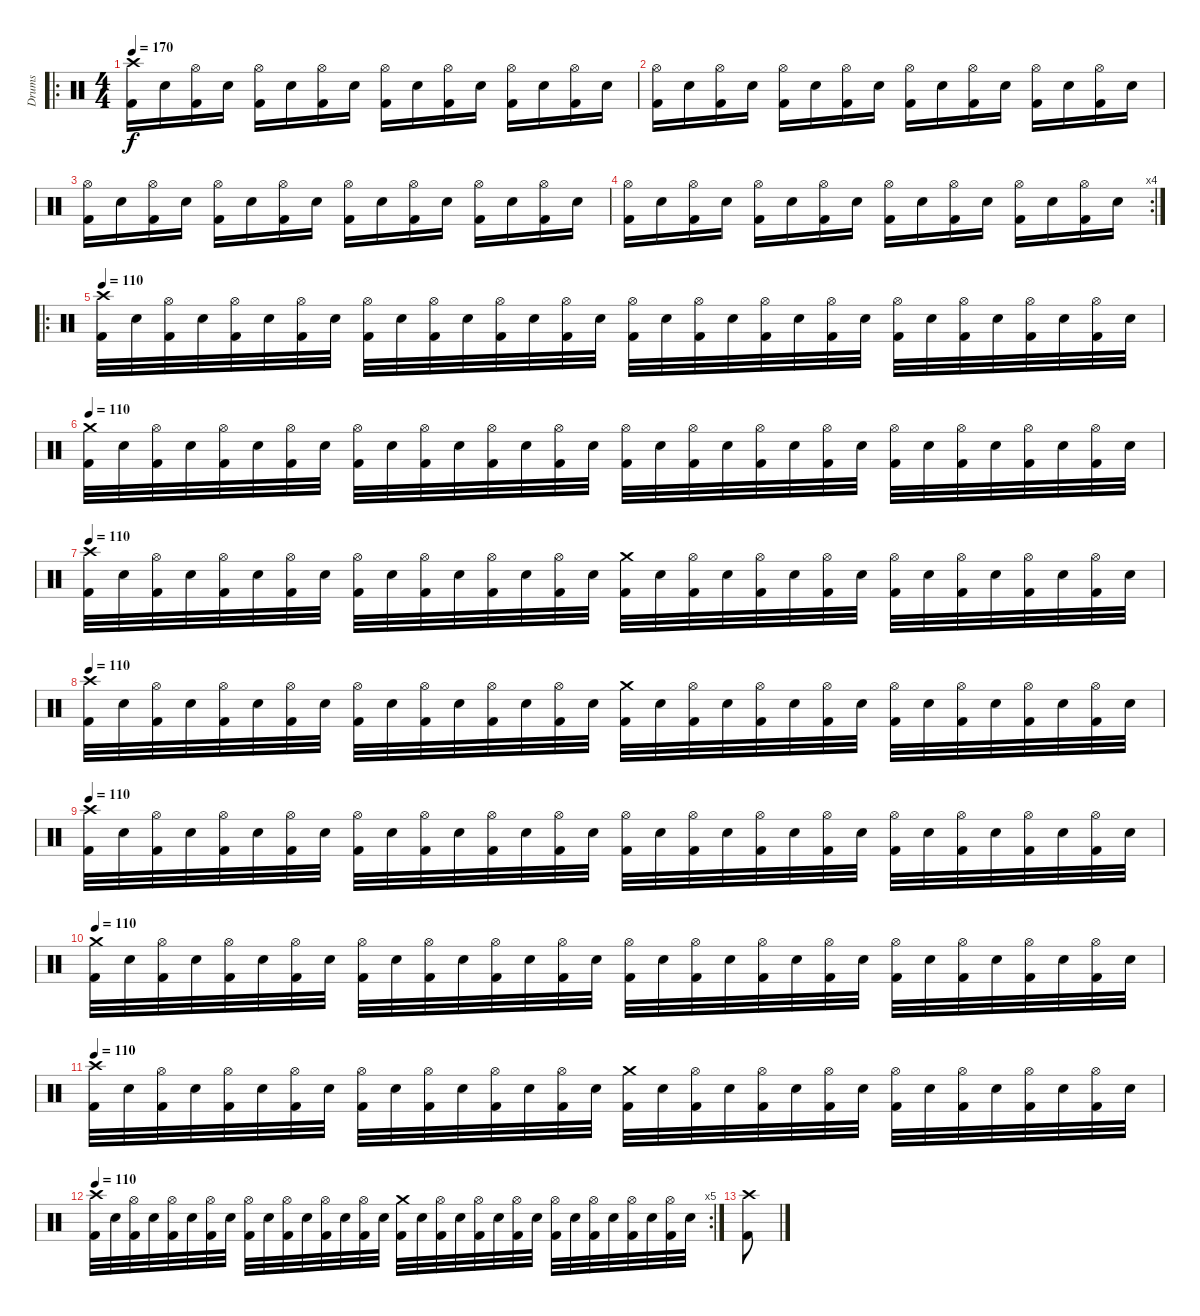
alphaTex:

\track ("Drums" "Drums") {instrument percussion}
\staff {score}
\articulation defaults
\ro
\ts (4 4)
\tempo 170
\clef neutral
\ks c
("Crash high (hit)" "Kick (hit) 2").16{dy f} "Electric Snare (hit)".16 ("Hi-Hat (open)" "Kick (hit) 2").16 "Electric Snare (hit)".16 ("Hi-Hat (open)" "Kick (hit) 2").16 "Electric Snare (hit)".16 ("Hi-Hat (open)" "Kick (hit) 2").16 "Electric Snare (hit)".16 ("Hi-Hat (open)" "Kick (hit) 2").16 "Electric Snare (hit)".16 ("Hi-Hat (open)" "Kick (hit) 2").16 "Electric Snare (hit)".16 ("Hi-Hat (open)" "Kick (hit) 2").16 "Electric Snare (hit)".16 ("Hi-Hat (open)" "Kick (hit) 2").16 "Electric Snare (hit)".16 |
("Hi-Hat (open)" "Kick (hit) 2").16 "Electric Snare (hit)".16 ("Hi-Hat (open)" "Kick (hit) 2").16 "Electric Snare (hit)".16 ("Hi-Hat (open)" "Kick (hit) 2").16 "Electric Snare (hit)".16 ("Hi-Hat (open)" "Kick (hit) 2").16 "Electric Snare (hit)".16 ("Hi-Hat (open)" "Kick (hit) 2").16 "Electric Snare (hit)".16 ("Hi-Hat (open)" "Kick (hit) 2").16 "Electric Snare (hit)".16 ("Hi-Hat (open)" "Kick (hit) 2").16 "Electric Snare (hit)".16 ("Hi-Hat (open)" "Kick (hit) 2").16 "Electric Snare (hit)".16 |
("Hi-Hat (open)" "Kick (hit) 2").16 "Electric Snare (hit)".16 ("Hi-Hat (open)" "Kick (hit) 2").16 "Electric Snare (hit)".16 ("Hi-Hat (open)" "Kick (hit) 2").16 "Electric Snare (hit)".16 ("Hi-Hat (open)" "Kick (hit) 2").16 "Electric Snare (hit)".16 ("Hi-Hat (open)" "Kick (hit) 2").16 "Electric Snare (hit)".16 ("Hi-Hat (open)" "Kick (hit) 2").16 "Electric Snare (hit)".16 ("Hi-Hat (open)" "Kick (hit) 2").16 "Electric Snare (hit)".16 ("Hi-Hat (open)" "Kick (hit) 2").16 "Electric Snare (hit)".16 |
\rc 4
("Hi-Hat (open)" "Kick (hit) 2").16 "Electric Snare (hit)".16 ("Hi-Hat (open)" "Kick (hit) 2").16 "Electric Snare (hit)".16 ("Hi-Hat (open)" "Kick (hit) 2").16 "Electric Snare (hit)".16 ("Hi-Hat (open)" "Kick (hit) 2").16 "Electric Snare (hit)".16 ("Hi-Hat (open)" "Kick (hit) 2").16 "Electric Snare (hit)".16 ("Hi-Hat (open)" "Kick (hit) 2").16 "Electric Snare (hit)".16 ("Hi-Hat (open)" "Kick (hit) 2").16 "Electric Snare (hit)".16 ("Hi-Hat (open)" "Kick (hit) 2").16 "Electric Snare (hit)".16 |
\ro
\tempo 180
\tempo 100
\tempo 110
("Crash high (hit)" "Kick (hit) 2").32 "Electric Snare (hit)".32 ("Hi-Hat (open)" "Kick (hit) 2").32 "Electric Snare (hit)".32 ("Hi-Hat (open)" "Kick (hit) 2").32 "Electric Snare (hit)".32 ("Hi-Hat (open)" "Kick (hit) 2").32 "Electric Snare (hit)".32 ("Hi-Hat (open)" "Kick (hit) 2").32 "Electric Snare (hit)".32 ("Hi-Hat (open)" "Kick (hit) 2").32 "Electric Snare (hit)".32 ("Hi-Hat (open)" "Kick (hit) 2").32 "Electric Snare (hit)".32 ("Hi-Hat (open)" "Kick (hit) 2").32 "Electric Snare (hit)".32 ("Hi-Hat (open)" "Kick (hit) 2").32 "Electric Snare (hit)".32 ("Hi-Hat (open)" "Kick (hit) 2").32 "Electric Snare (hit)".32 ("Hi-Hat (open)" "Kick (hit) 2").32 "Electric Snare (hit)".32 ("Hi-Hat (open)" "Kick (hit) 2").32 "Electric Snare (hit)".32 ("Hi-Hat (open)" "Kick (hit) 2").32 "Electric Snare (hit)".32 ("Hi-Hat (open)" "Kick (hit) 2").32 "Electric Snare (hit)".32 ("Hi-Hat (open)" "Kick (hit) 2").32 "Electric Snare (hit)".32 ("Hi-Hat (open)" "Kick (hit) 2").32 "Electric Snare (hit)".32 |
\tempo 100
\tempo 110
("Crash medium (hit)" "Kick (hit) 2").32 "Electric Snare (hit)".32 ("Hi-Hat (open)" "Kick (hit) 2").32 "Electric Snare (hit)".32 ("Hi-Hat (open)" "Kick (hit) 2").32 "Electric Snare (hit)".32 ("Hi-Hat (open)" "Kick (hit) 2").32 "Electric Snare (hit)".32 ("Hi-Hat (open)" "Kick (hit) 2").32 "Electric Snare (hit)".32 ("Hi-Hat (open)" "Kick (hit) 2").32 "Electric Snare (hit)".32 ("Hi-Hat (open)" "Kick (hit) 2").32 "Electric Snare (hit)".32 ("Hi-Hat (open)" "Kick (hit) 2").32 "Electric Snare (hit)".32 ("Hi-Hat (open)" "Kick (hit) 2").32 "Electric Snare (hit)".32 ("Hi-Hat (open)" "Kick (hit) 2").32 "Electric Snare (hit)".32 ("Hi-Hat (open)" "Kick (hit) 2").32 "Electric Snare (hit)".32 ("Hi-Hat (open)" "Kick (hit) 2").32 "Electric Snare (hit)".32 ("Hi-Hat (open)" "Kick (hit) 2").32 "Electric Snare (hit)".32 ("Hi-Hat (open)" "Kick (hit) 2").32 "Electric Snare (hit)".32 ("Hi-Hat (open)" "Kick (hit) 2").32 "Electric Snare (hit)".32 ("Hi-Hat (open)" "Kick (hit) 2").32 "Electric Snare (hit)".32 |
\tempo 110
("Crash high (hit)" "Kick (hit) 2").32 "Electric Snare (hit)".32 ("Hi-Hat (open)" "Kick (hit) 2").32 "Electric Snare (hit)".32 ("Hi-Hat (open)" "Kick (hit) 2").32 "Electric Snare (hit)".32 ("Hi-Hat (open)" "Kick (hit) 2").32 "Electric Snare (hit)".32 ("Hi-Hat (open)" "Kick (hit) 2").32 "Electric Snare (hit)".32 ("Hi-Hat (open)" "Kick (hit) 2").32 "Electric Snare (hit)".32 ("Hi-Hat (open)" "Kick (hit) 2").32 "Electric Snare (hit)".32 ("Hi-Hat (open)" "Kick (hit) 2").32 "Electric Snare (hit)".32 ("Crash medium (hit)" "Kick (hit) 2").32 "Electric Snare (hit)".32 ("Hi-Hat (open)" "Kick (hit) 2").32 "Electric Snare (hit)".32 ("Hi-Hat (open)" "Kick (hit) 2").32 "Electric Snare (hit)".32 ("Hi-Hat (open)" "Kick (hit) 2").32 "Electric Snare (hit)".32 ("Hi-Hat (open)" "Kick (hit) 2").32 "Electric Snare (hit)".32 ("Hi-Hat (open)" "Kick (hit) 2").32 "Electric Snare (hit)".32 ("Hi-Hat (open)" "Kick (hit) 2").32 "Electric Snare (hit)".32 ("Hi-Hat (open)" "Kick (hit) 2").32 "Electric Snare (hit)".32 |
\tempo 110
("Crash high (hit)" "Kick (hit) 2").32 "Electric Snare (hit)".32 ("Hi-Hat (open)" "Kick (hit) 2").32 "Electric Snare (hit)".32 ("Hi-Hat (open)" "Kick (hit) 2").32 "Electric Snare (hit)".32 ("Hi-Hat (open)" "Kick (hit) 2").32 "Electric Snare (hit)".32 ("Hi-Hat (open)" "Kick (hit) 2").32 "Electric Snare (hit)".32 ("Hi-Hat (open)" "Kick (hit) 2").32 "Electric Snare (hit)".32 ("Hi-Hat (open)" "Kick (hit) 2").32 "Electric Snare (hit)".32 ("Hi-Hat (open)" "Kick (hit) 2").32 "Electric Snare (hit)".32 ("Crash medium (hit)" "Kick (hit) 2").32 "Electric Snare (hit)".32 ("Hi-Hat (open)" "Kick (hit) 2").32 "Electric Snare (hit)".32 ("Hi-Hat (open)" "Kick (hit) 2").32 "Electric Snare (hit)".32 ("Hi-Hat (open)" "Kick (hit) 2").32 "Electric Snare (hit)".32 ("Hi-Hat (open)" "Kick (hit) 2").32 "Electric Snare (hit)".32 ("Hi-Hat (open)" "Kick (hit) 2").32 "Electric Snare (hit)".32 ("Hi-Hat (open)" "Kick (hit) 2").32 "Electric Snare (hit)".32 ("Hi-Hat (open)" "Kick (hit) 2").32 "Electric Snare (hit)".32 |
\tempo 110
("Crash high (hit)" "Kick (hit) 2").32 "Electric Snare (hit)".32 ("Hi-Hat (open)" "Kick (hit) 2").32 "Electric Snare (hit)".32 ("Hi-Hat (open)" "Kick (hit) 2").32 "Electric Snare (hit)".32 ("Hi-Hat (open)" "Kick (hit) 2").32 "Electric Snare (hit)".32 ("Hi-Hat (open)" "Kick (hit) 2").32 "Electric Snare (hit)".32 ("Hi-Hat (open)" "Kick (hit) 2").32 "Electric Snare (hit)".32 ("Hi-Hat (open)" "Kick (hit) 2").32 "Electric Snare (hit)".32 ("Hi-Hat (open)" "Kick (hit) 2").32 "Electric Snare (hit)".32 ("Hi-Hat (open)" "Kick (hit) 2").32 "Electric Snare (hit)".32 ("Hi-Hat (open)" "Kick (hit) 2").32 "Electric Snare (hit)".32 ("Hi-Hat (open)" "Kick (hit) 2").32 "Electric Snare (hit)".32 ("Hi-Hat (open)" "Kick (hit) 2").32 "Electric Snare (hit)".32 ("Hi-Hat (open)" "Kick (hit) 2").32 "Electric Snare (hit)".32 ("Hi-Hat (open)" "Kick (hit) 2").32 "Electric Snare (hit)".32 ("Hi-Hat (open)" "Kick (hit) 2").32 "Electric Snare (hit)".32 ("Hi-Hat (open)" "Kick (hit) 2").32 "Electric Snare (hit)".32 |
\tempo 110
("Crash medium (hit)" "Kick (hit) 2").32 "Electric Snare (hit)".32 ("Hi-Hat (open)" "Kick (hit) 2").32 "Electric Snare (hit)".32 ("Hi-Hat (open)" "Kick (hit) 2").32 "Electric Snare (hit)".32 ("Hi-Hat (open)" "Kick (hit) 2").32 "Electric Snare (hit)".32 ("Hi-Hat (open)" "Kick (hit) 2").32 "Electric Snare (hit)".32 ("Hi-Hat (open)" "Kick (hit) 2").32 "Electric Snare (hit)".32 ("Hi-Hat (open)" "Kick (hit) 2").32 "Electric Snare (hit)".32 ("Hi-Hat (open)" "Kick (hit) 2").32 "Electric Snare (hit)".32 ("Hi-Hat (open)" "Kick (hit) 2").32 "Electric Snare (hit)".32 ("Hi-Hat (open)" "Kick (hit) 2").32 "Electric Snare (hit)".32 ("Hi-Hat (open)" "Kick (hit) 2").32 "Electric Snare (hit)".32 ("Hi-Hat (open)" "Kick (hit) 2").32 "Electric Snare (hit)".32 ("Hi-Hat (open)" "Kick (hit) 2").32 "Electric Snare (hit)".32 ("Hi-Hat (open)" "Kick (hit) 2").32 "Electric Snare (hit)".32 ("Hi-Hat (open)" "Kick (hit) 2").32 "Electric Snare (hit)".32 ("Hi-Hat (open)" "Kick (hit) 2").32 "Electric Snare (hit)".32 |
\tempo 110
("Crash high (hit)" "Kick (hit) 2").32 "Electric Snare (hit)".32 ("Hi-Hat (open)" "Kick (hit) 2").32 "Electric Snare (hit)".32 ("Hi-Hat (open)" "Kick (hit) 2").32 "Electric Snare (hit)".32 ("Hi-Hat (open)" "Kick (hit) 2").32 "Electric Snare (hit)".32 ("Hi-Hat (open)" "Kick (hit) 2").32 "Electric Snare (hit)".32 ("Hi-Hat (open)" "Kick (hit) 2").32 "Electric Snare (hit)".32 ("Hi-Hat (open)" "Kick (hit) 2").32 "Electric Snare (hit)".32 ("Hi-Hat (open)" "Kick (hit) 2").32 "Electric Snare (hit)".32 ("Crash medium (hit)" "Kick (hit) 2").32 "Electric Snare (hit)".32 ("Hi-Hat (open)" "Kick (hit) 2").32 "Electric Snare (hit)".32 ("Hi-Hat (open)" "Kick (hit) 2").32 "Electric Snare (hit)".32 ("Hi-Hat (open)" "Kick (hit) 2").32 "Electric Snare (hit)".32 ("Hi-Hat (open)" "Kick (hit) 2").32 "Electric Snare (hit)".32 ("Hi-Hat (open)" "Kick (hit) 2").32 "Electric Snare (hit)".32 ("Hi-Hat (open)" "Kick (hit) 2").32 "Electric Snare (hit)".32 ("Hi-Hat (open)" "Kick (hit) 2").32 "Electric Snare (hit)".32 |
\rc 5
\tempo 110
("Crash high (hit)" "Kick (hit) 2").32 "Electric Snare (hit)".32 ("Hi-Hat (open)" "Kick (hit) 2").32 "Electric Snare (hit)".32 ("Hi-Hat (open)" "Kick (hit) 2").32 "Electric Snare (hit)".32 ("Hi-Hat (open)" "Kick (hit) 2").32 "Electric Snare (hit)".32 ("Hi-Hat (open)" "Kick (hit) 2").32 "Electric Snare (hit)".32 ("Hi-Hat (open)" "Kick (hit) 2").32 "Electric Snare (hit)".32 ("Hi-Hat (open)" "Kick (hit) 2").32 "Electric Snare (hit)".32 ("Hi-Hat (open)" "Kick (hit) 2").32 "Electric Snare (hit)".32 ("Crash medium (hit)" "Kick (hit) 2").32 "Electric Snare (hit)".32 ("Hi-Hat (open)" "Kick (hit) 2").32 "Electric Snare (hit)".32 ("Hi-Hat (open)" "Kick (hit) 2").32 "Electric Snare (hit)".32 ("Hi-Hat (open)" "Kick (hit) 2").32 "Electric Snare (hit)".32 ("Hi-Hat (open)" "Kick (hit) 2").32 "Electric Snare (hit)".32 ("Hi-Hat (open)" "Kick (hit) 2").32 "Electric Snare (hit)".32 ("Hi-Hat (open)" "Kick (hit) 2").32 "Electric Snare (hit)".32 ("Hi-Hat (open)" "Kick (hit) 2").32 "Electric Snare (hit)".32 |
("Crash high (hit)" "Kick (hit) 2").8
